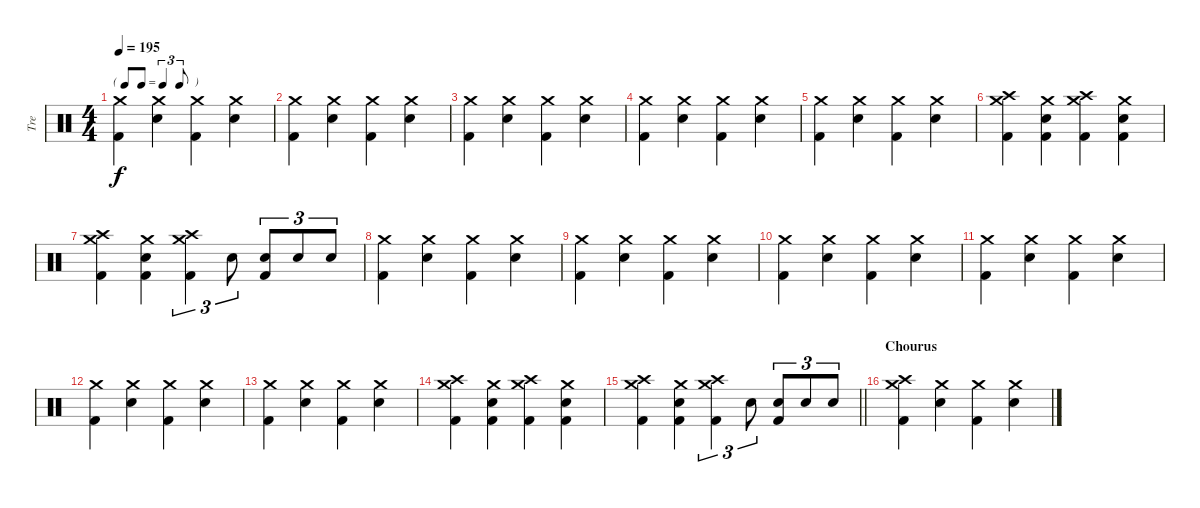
\track ("Tre" "Tre") {instrument percussion}
\staff {score}
\articulation defaults
\ts (4 4)
\tf triplet8th
\tempo 195
\clef neutral
\ks c
("Crash medium (hit)" "Kick (hit) 2").4{dy f} ("Crash medium (hit)" "Snare (hit) 2").4 ("Crash medium (hit)" "Kick (hit) 2").4 ("Crash medium (hit)" "Snare (hit) 2").4 |
("Crash medium (hit)" "Kick (hit) 2").4 ("Crash medium (hit)" "Snare (hit) 2").4 ("Crash medium (hit)" "Kick (hit) 2").4 ("Crash medium (hit)" "Snare (hit) 2").4 |
("Crash medium (hit)" "Kick (hit) 2").4 ("Crash medium (hit)" "Snare (hit) 2").4 ("Crash medium (hit)" "Kick (hit) 2").4 ("Crash medium (hit)" "Snare (hit) 2").4 |
("Crash medium (hit)" "Kick (hit) 2").4 ("Crash medium (hit)" "Snare (hit) 2").4 ("Crash medium (hit)" "Kick (hit) 2").4 ("Crash medium (hit)" "Snare (hit) 2").4 |
("Crash medium (hit)" "Kick (hit) 2").4 ("Crash medium (hit)" "Snare (hit) 2").4 ("Crash medium (hit)" "Kick (hit) 2").4 ("Crash medium (hit)" "Snare (hit) 2").4 |
("Crash medium (hit)" "Crash high (hit)" "Kick (hit) 2").4 ("Crash medium (hit)" "Snare (hit) 2" "Kick (hit) 2").4 ("Crash medium (hit)" "Crash high (hit)" "Kick (hit) 2").4 ("Crash medium (hit)" "Snare (hit) 2" "Kick (hit) 2").4 |
("Crash medium (hit)" "Crash high (hit)" "Kick (hit) 2").4 ("Crash medium (hit)" "Snare (hit) 2" "Kick (hit) 2").4 ("Crash medium (hit)" "Crash high (hit)" "Kick (hit) 2").4{tu (3 2)} "Snare (hit) 2".8{tu (3 2)} ("Snare (hit) 2" "Kick (hit) 2").8{tu (3 2)} "Snare (hit) 2".8{tu (3 2)} "Snare (hit) 2".8{tu (3 2)} |
("Crash medium (hit)" "Kick (hit) 2").4 ("Crash medium (hit)" "Snare (hit) 2").4 ("Crash medium (hit)" "Kick (hit) 2").4 ("Crash medium (hit)" "Snare (hit) 2").4 |
("Crash medium (hit)" "Kick (hit) 2").4 ("Crash medium (hit)" "Snare (hit) 2").4 ("Crash medium (hit)" "Kick (hit) 2").4 ("Crash medium (hit)" "Snare (hit) 2").4 |
("Crash medium (hit)" "Kick (hit) 2").4 ("Crash medium (hit)" "Snare (hit) 2").4 ("Crash medium (hit)" "Kick (hit) 2").4 ("Crash medium (hit)" "Snare (hit) 2").4 |
("Crash medium (hit)" "Kick (hit) 2").4 ("Crash medium (hit)" "Snare (hit) 2").4 ("Crash medium (hit)" "Kick (hit) 2").4 ("Crash medium (hit)" "Snare (hit) 2").4 |
("Crash medium (hit)" "Kick (hit) 2").4 ("Crash medium (hit)" "Snare (hit) 2").4 ("Crash medium (hit)" "Kick (hit) 2").4 ("Crash medium (hit)" "Snare (hit) 2").4 |
("Crash medium (hit)" "Kick (hit) 2").4 ("Crash medium (hit)" "Snare (hit) 2").4 ("Crash medium (hit)" "Kick (hit) 2").4 ("Crash medium (hit)" "Snare (hit) 2").4 |
("Crash medium (hit)" "Crash high (hit)" "Kick (hit) 2").4 ("Crash medium (hit)" "Snare (hit) 2" "Kick (hit) 2").4 ("Crash medium (hit)" "Crash high (hit)" "Kick (hit) 2").4 ("Crash medium (hit)" "Snare (hit) 2" "Kick (hit) 2").4 |
\barLineRight lightlight
("Crash medium (hit)" "Crash high (hit)" "Kick (hit) 2").4 ("Crash medium (hit)" "Snare (hit) 2" "Kick (hit) 2").4 ("Crash medium (hit)" "Crash high (hit)" "Kick (hit) 2").4{tu (3 2)} "Snare (hit) 2".8{tu (3 2)} ("Snare (hit) 2" "Kick (hit) 2").8{tu (3 2)} "Snare (hit) 2".8{tu (3 2)} "Snare (hit) 2".8{tu (3 2)} |
\section ("" "Chourus")
("Crash medium (hit)" "Crash high (hit)" "Kick (hit) 2").4 ("Crash medium (hit)" "Snare (hit) 2").4 ("Crash medium (hit)" "Kick (hit) 2").4 ("Crash medium (hit)" "Snare (hit) 2").4
